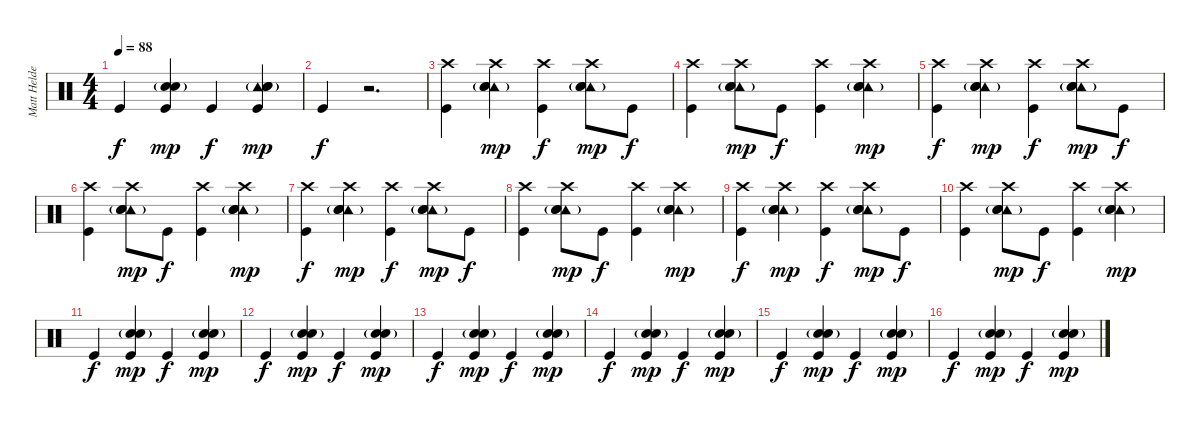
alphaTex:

\track ("Matt Helders" "Matt Helde") {instrument percussion}
\staff {score}
\articulation defaults
\ts (4 4)
\tempo 88
\clef neutral
\ks c "Kick (hit)".4{dy f}
("Hand Clap (hit)" "Snare (hit) 2"{g} "Kick (hit)").4{dy mp} "Kick (hit)".4{dy f} ("Tambourine (hit)" "Hand Clap (hit)" "Snare (hit) 2"{g} "Kick (hit)").4{dy mp} |
"Kick (hit)".4{dy f} r.2{d} |
("Crash high (hit)" "Kick (hit)").4 ("Crash high (hit)" "Tambourine (hit)" "Hand Clap (hit)"{g} "Snare (hit) 2").4{dy mp} ("Crash high (hit)" "Kick (hit)").4{dy f} ("Crash high (hit)" "Tambourine (hit)" "Hand Clap (hit)"{g} "Snare (hit) 2").8{dy mp} "Kick (hit)".8{dy f} |
("Crash high (hit)" "Kick (hit)").4 ("Crash high (hit)" "Tambourine (hit)" "Hand Clap (hit)"{g} "Snare (hit) 2").8{dy mp} "Kick (hit)".8{dy f} ("Crash high (hit)" "Kick (hit)").4 ("Crash high (hit)" "Tambourine (hit)" "Hand Clap (hit)"{g} "Snare (hit) 2").4{dy mp} |
("Crash high (hit)" "Kick (hit)").4{dy f} ("Crash high (hit)" "Tambourine (hit)" "Hand Clap (hit)"{g} "Snare (hit) 2").4{dy mp} ("Crash high (hit)" "Kick (hit)").4{dy f} ("Crash high (hit)" "Tambourine (hit)" "Hand Clap (hit)"{g} "Snare (hit) 2").8{dy mp} "Kick (hit)".8{dy f} |
("Crash high (hit)" "Kick (hit)").4 ("Crash high (hit)" "Tambourine (hit)" "Hand Clap (hit)"{g} "Snare (hit) 2").8{dy mp} "Kick (hit)".8{dy f} ("Crash high (hit)" "Kick (hit)").4 ("Crash high (hit)" "Tambourine (hit)" "Hand Clap (hit)"{g} "Snare (hit) 2").4{dy mp} |
("Crash high (hit)" "Kick (hit)").4{dy f} ("Crash high (hit)" "Tambourine (hit)" "Hand Clap (hit)"{g} "Snare (hit) 2").4{dy mp} ("Crash high (hit)" "Kick (hit)").4{dy f} ("Crash high (hit)" "Tambourine (hit)" "Hand Clap (hit)"{g} "Snare (hit) 2").8{dy mp} "Kick (hit)".8{dy f} |
("Crash high (hit)" "Kick (hit)").4 ("Crash high (hit)" "Tambourine (hit)" "Hand Clap (hit)"{g} "Snare (hit) 2").8{dy mp} "Kick (hit)".8{dy f} ("Crash high (hit)" "Kick (hit)").4 ("Crash high (hit)" "Tambourine (hit)" "Hand Clap (hit)"{g} "Snare (hit) 2").4{dy mp} |
("Crash high (hit)" "Kick (hit)").4{dy f} ("Crash high (hit)" "Tambourine (hit)" "Hand Clap (hit)"{g} "Snare (hit) 2").4{dy mp} ("Crash high (hit)" "Kick (hit)").4{dy f} ("Crash high (hit)" "Tambourine (hit)" "Hand Clap (hit)"{g} "Snare (hit) 2").8{dy mp} "Kick (hit)".8{dy f} |
("Crash high (hit)" "Kick (hit)").4 ("Crash high (hit)" "Tambourine (hit)" "Hand Clap (hit)"{g} "Snare (hit) 2").8{dy mp} "Kick (hit)".8{dy f} ("Crash high (hit)" "Kick (hit)").4 ("Crash high (hit)" "Tambourine (hit)" "Hand Clap (hit)"{g} "Snare (hit) 2").4{dy mp} |
"Kick (hit)".4{dy f} ("Hand Clap (hit)" "Snare (hit) 2"{g} "Kick (hit)").4{dy mp} "Kick (hit)".4{dy f} ("Hand Clap (hit)" "Snare (hit) 2"{g} "Kick (hit)").4{dy mp} |
"Kick (hit)".4{dy f} ("Hand Clap (hit)" "Snare (hit) 2"{g} "Kick (hit)").4{dy mp} "Kick (hit)".4{dy f} ("Hand Clap (hit)" "Snare (hit) 2"{g} "Kick (hit)").4{dy mp} |
"Kick (hit)".4{dy f} ("Hand Clap (hit)" "Snare (hit) 2"{g} "Kick (hit)").4{dy mp} "Kick (hit)".4{dy f} ("Hand Clap (hit)" "Snare (hit) 2"{g} "Kick (hit)").4{dy mp} |
"Kick (hit)".4{dy f} ("Hand Clap (hit)" "Snare (hit) 2"{g} "Kick (hit)").4{dy mp} "Kick (hit)".4{dy f} ("Hand Clap (hit)" "Snare (hit) 2"{g} "Kick (hit)").4{dy mp} |
"Kick (hit)".4{dy f} ("Hand Clap (hit)" "Snare (hit) 2"{g} "Kick (hit)").4{dy mp} "Kick (hit)".4{dy f} ("Hand Clap (hit)" "Snare (hit) 2"{g} "Kick (hit)").4{dy mp} |
"Kick (hit)".4{dy f} ("Hand Clap (hit)" "Snare (hit) 2"{g} "Kick (hit)").4{dy mp} "Kick (hit)".4{dy f} ("Hand Clap (hit)" "Snare (hit) 2"{g} "Kick (hit)").4{dy mp}
